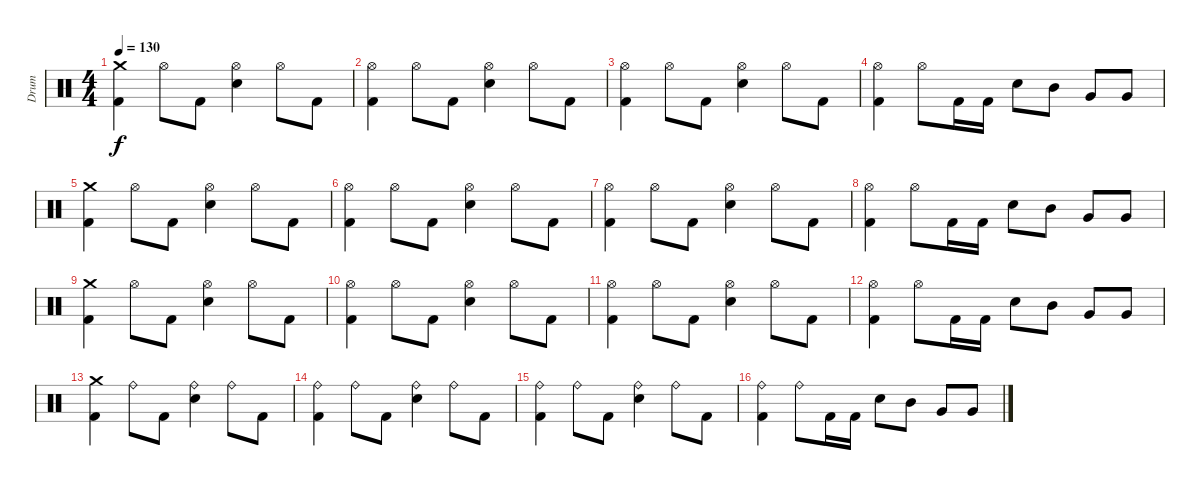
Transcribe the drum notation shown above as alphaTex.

\track ("Drum" "Drum") {instrument percussion}
\staff {score}
\articulation defaults
\ts (4 4)
\tempo 130
\clef neutral
\ks c
("Crash medium (hit)" "Kick (hit) 2").4{dy f} "Hi-Hat (open)".8 "Kick (hit) 2".8 ("Hi-Hat (open)" "Electric Snare (hit)").4 "Hi-Hat (open)".8 "Kick (hit) 2".8 |
("Hi-Hat (open)" "Kick (hit) 2").4 "Hi-Hat (open)".8 "Kick (hit) 2".8 ("Hi-Hat (open)" "Electric Snare (hit)").4 "Hi-Hat (open)".8 "Kick (hit) 2".8 |
("Hi-Hat (open)" "Kick (hit) 2").4 "Hi-Hat (open)".8 "Kick (hit) 2".8 ("Hi-Hat (open)" "Electric Snare (hit)").4 "Hi-Hat (open)".8 "Kick (hit) 2".8 |
("Hi-Hat (open)" "Kick (hit) 2").4 "Hi-Hat (open)".8 "Kick (hit) 2".16 "Kick (hit) 2".16 "Electric Snare (hit)".8 "Mid Tom (hit)".8 "Very Low Tom (hit)".8 "Very Low Tom (hit)".8 |
("Crash medium (hit)" "Kick (hit) 2").4 "Hi-Hat (open)".8 "Kick (hit) 2".8 ("Hi-Hat (open)" "Electric Snare (hit)").4 "Hi-Hat (open)".8 "Kick (hit) 2".8 |
("Hi-Hat (open)" "Kick (hit) 2").4 "Hi-Hat (open)".8 "Kick (hit) 2".8 ("Hi-Hat (open)" "Electric Snare (hit)").4 "Hi-Hat (open)".8 "Kick (hit) 2".8 |
("Hi-Hat (open)" "Kick (hit) 2").4 "Hi-Hat (open)".8 "Kick (hit) 2".8 ("Hi-Hat (open)" "Electric Snare (hit)").4 "Hi-Hat (open)".8 "Kick (hit) 2".8 |
("Hi-Hat (open)" "Kick (hit) 2").4 "Hi-Hat (open)".8 "Kick (hit) 2".16 "Kick (hit) 2".16 "Electric Snare (hit)".8 "Mid Tom (hit)".8 "Very Low Tom (hit)".8 "Very Low Tom (hit)".8 |
("Crash medium (hit)" "Kick (hit) 2").4 "Hi-Hat (open)".8 "Kick (hit) 2".8 ("Hi-Hat (open)" "Electric Snare (hit)").4 "Hi-Hat (open)".8 "Kick (hit) 2".8 |
("Hi-Hat (open)" "Kick (hit) 2").4 "Hi-Hat (open)".8 "Kick (hit) 2".8 ("Hi-Hat (open)" "Electric Snare (hit)").4 "Hi-Hat (open)".8 "Kick (hit) 2".8 |
("Hi-Hat (open)" "Kick (hit) 2").4 "Hi-Hat (open)".8 "Kick (hit) 2".8 ("Hi-Hat (open)" "Electric Snare (hit)").4 "Hi-Hat (open)".8 "Kick (hit) 2".8 |
("Hi-Hat (open)" "Kick (hit) 2").4 "Hi-Hat (open)".8 "Kick (hit) 2".16 "Kick (hit) 2".16 "Electric Snare (hit)".8 "Mid Tom (hit)".8 "Very Low Tom (hit)".8 "Very Low Tom (hit)".8 |
("Crash medium (hit)" "Kick (hit) 2").4 "Ride (bell)".8 "Kick (hit) 2".8 ("Ride (bell)" "Electric Snare (hit)").4 "Ride (bell)".8 "Kick (hit) 2".8 |
("Ride (bell)" "Kick (hit) 2").4 "Ride (bell)".8 "Kick (hit) 2".8 ("Ride (bell)" "Electric Snare (hit)").4 "Ride (bell)".8 "Kick (hit) 2".8 |
("Ride (bell)" "Kick (hit) 2").4 "Ride (bell)".8 "Kick (hit) 2".8 ("Ride (bell)" "Electric Snare (hit)").4 "Ride (bell)".8 "Kick (hit) 2".8 |
("Ride (bell)" "Kick (hit) 2").4 "Ride (bell)".8 "Kick (hit) 2".16 "Kick (hit) 2".16 "Electric Snare (hit)".8 "Mid Tom (hit)".8 "Very Low Tom (hit)".8 "Very Low Tom (hit)".8
